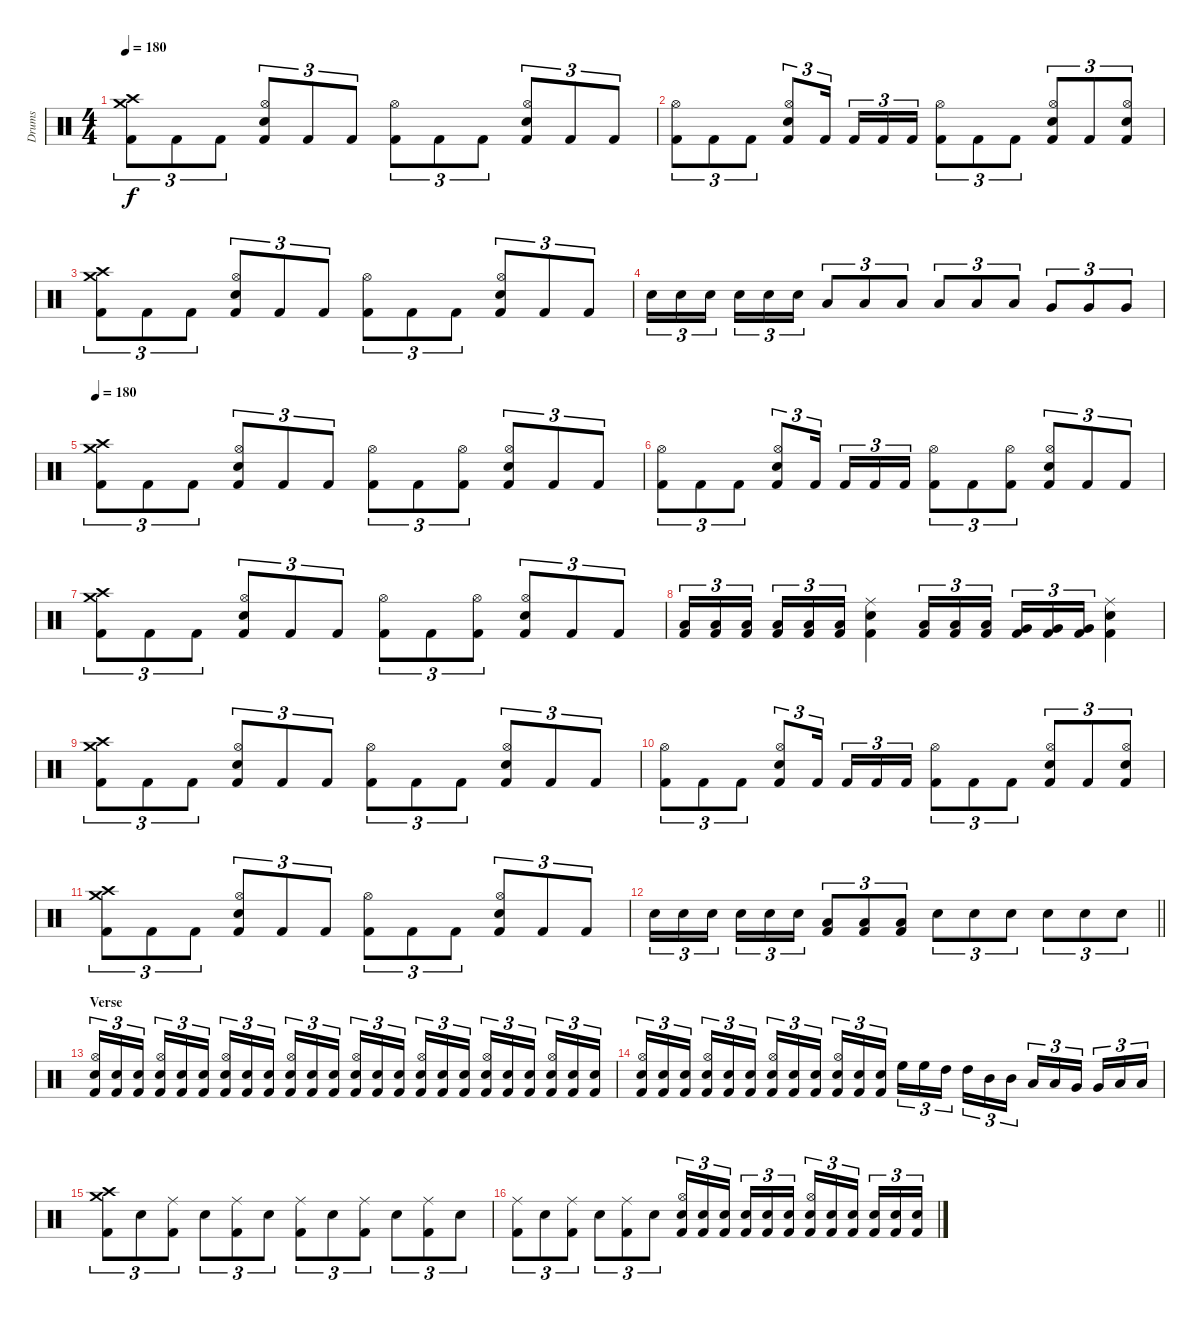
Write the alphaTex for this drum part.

\track ("Drums" "Drums") {instrument percussion}
\staff {score}
\articulation defaults
\ts (4 4)
\tempo 180
\clef neutral
\ks c
("Crash medium (hit)" "Crash high (hit)" "Kick (hit) 2").8{tu (3 2) dy f} "Kick (hit) 2".8{tu (3 2)} "Kick (hit) 2".8{tu (3 2)} ("Hi-Hat (open)" "Electric Snare (hit)" "Kick (hit) 2").8{tu (3 2)} "Kick (hit) 2".8{tu (3 2)} "Kick (hit) 2".8{tu (3 2)} ("Hi-Hat (open)" "Kick (hit) 2").8{tu (3 2)} "Kick (hit) 2".8{tu (3 2)} "Kick (hit) 2".8{tu (3 2)} ("Hi-Hat (open)" "Electric Snare (hit)" "Kick (hit) 2").8{tu (3 2)} "Kick (hit) 2".8{tu (3 2)} "Kick (hit) 2".8{tu (3 2)} |
("Hi-Hat (open)" "Kick (hit) 2").8{tu (3 2)} "Kick (hit) 2".8{tu (3 2)} "Kick (hit) 2".8{tu (3 2)} ("Hi-Hat (open)" "Electric Snare (hit)" "Kick (hit) 2").8{tu (3 2)} "Kick (hit) 2".16{tu (3 2) beam splitsecondary} "Kick (hit) 2".16{tu (3 2)} "Kick (hit) 2".16{tu (3 2)} "Kick (hit) 2".16{tu (3 2)} ("Hi-Hat (open)" "Kick (hit) 2").8{tu (3 2)} "Kick (hit) 2".8{tu (3 2)} "Kick (hit) 2".8{tu (3 2)} ("Hi-Hat (open)" "Electric Snare (hit)" "Kick (hit) 2").8{tu (3 2)} "Kick (hit) 2".8{tu (3 2)} ("Hi-Hat (open)" "Electric Snare (hit)" "Kick (hit) 2").8{tu (3 2)} |
("Crash medium (hit)" "Crash high (hit)" "Kick (hit) 2").8{tu (3 2)} "Kick (hit) 2".8{tu (3 2)} "Kick (hit) 2".8{tu (3 2)} ("Hi-Hat (open)" "Electric Snare (hit)" "Kick (hit) 2").8{tu (3 2)} "Kick (hit) 2".8{tu (3 2)} "Kick (hit) 2".8{tu (3 2)} ("Hi-Hat (open)" "Kick (hit) 2").8{tu (3 2)} "Kick (hit) 2".8{tu (3 2)} "Kick (hit) 2".8{tu (3 2)} ("Hi-Hat (open)" "Electric Snare (hit)" "Kick (hit) 2").8{tu (3 2)} "Kick (hit) 2".8{tu (3 2)} "Kick (hit) 2".8{tu (3 2)} |
"Electric Snare (hit)".16{tu (3 2)} "Electric Snare (hit)".16{tu (3 2)} "Electric Snare (hit)".16{tu (3 2) beam splitsecondary} "Electric Snare (hit)".16{tu (3 2)} "Electric Snare (hit)".16{tu (3 2)} "Electric Snare (hit)".16{tu (3 2)} "Low Floor Tom (hit)".8{tu (3 2)} "Low Floor Tom (hit)".8{tu (3 2)} "Low Floor Tom (hit)".8{tu (3 2)} "Low Tom (hit)".8{tu (3 2)} "Low Tom (hit)".8{tu (3 2)} "Low Tom (hit)".8{tu (3 2)} "Very Low Tom (hit)".8{tu (3 2)} "Very Low Tom (hit)".8{tu (3 2)} "Very Low Tom (hit)".8{tu (3 2)} |
\tempo 180
("Crash medium (hit)" "Crash high (hit)" "Kick (hit) 2").8{tu (3 2)} "Kick (hit) 2".8{tu (3 2)} "Kick (hit) 2".8{tu (3 2)} ("Hi-Hat (open)" "Electric Snare (hit)" "Kick (hit) 2").8{tu (3 2)} "Kick (hit) 2".8{tu (3 2)} "Kick (hit) 2".8{tu (3 2)} ("Hi-Hat (open)" "Kick (hit) 2").8{tu (3 2)} "Kick (hit) 2".8{tu (3 2)} ("Hi-Hat (open)" "Kick (hit) 2").8{tu (3 2)} ("Hi-Hat (open)" "Electric Snare (hit)" "Kick (hit) 2").8{tu (3 2)} "Kick (hit) 2".8{tu (3 2)} "Kick (hit) 2".8{tu (3 2)} |
("Hi-Hat (open)" "Kick (hit) 2").8{tu (3 2)} "Kick (hit) 2".8{tu (3 2)} "Kick (hit) 2".8{tu (3 2)} ("Hi-Hat (open)" "Electric Snare (hit)" "Kick (hit) 2").8{tu (3 2)} "Kick (hit) 2".16{tu (3 2) beam splitsecondary} "Kick (hit) 2".16{tu (3 2)} "Kick (hit) 2".16{tu (3 2)} "Kick (hit) 2".16{tu (3 2)} ("Hi-Hat (open)" "Kick (hit) 2").8{tu (3 2)} "Kick (hit) 2".8{tu (3 2)} ("Hi-Hat (open)" "Kick (hit) 2").8{tu (3 2)} ("Hi-Hat (open)" "Electric Snare (hit)" "Kick (hit) 2").8{tu (3 2)} "Kick (hit) 2".8{tu (3 2)} "Kick (hit) 2".8{tu (3 2)} |
("Crash medium (hit)" "Crash high (hit)" "Kick (hit) 2").8{tu (3 2)} "Kick (hit) 2".8{tu (3 2)} "Kick (hit) 2".8{tu (3 2)} ("Hi-Hat (open)" "Electric Snare (hit)" "Kick (hit) 2").8{tu (3 2)} "Kick (hit) 2".8{tu (3 2)} "Kick (hit) 2".8{tu (3 2)} ("Hi-Hat (open)" "Kick (hit) 2").8{tu (3 2)} "Kick (hit) 2".8{tu (3 2)} ("Hi-Hat (open)" "Kick (hit) 2").8{tu (3 2)} ("Hi-Hat (open)" "Electric Snare (hit)" "Kick (hit) 2").8{tu (3 2)} "Kick (hit) 2".8{tu (3 2)} "Kick (hit) 2".8{tu (3 2)} |
("Low Floor Tom (hit)" "Kick (hit) 2").16{tu (3 2)} ("Low Floor Tom (hit)" "Kick (hit) 2").16{tu (3 2)} ("Low Floor Tom (hit)" "Kick (hit) 2").16{tu (3 2) beam splitsecondary} ("Low Floor Tom (hit)" "Kick (hit) 2").16{tu (3 2)} ("Low Floor Tom (hit)" "Kick (hit) 2").16{tu (3 2)} ("Low Floor Tom (hit)" "Kick (hit) 2").16{tu (3 2)} ("Ride (middle)" "Electric Snare (hit)" "Kick (hit) 2").4 ("Low Tom (hit)" "Kick (hit) 2").16{tu (3 2)} ("Low Tom (hit)" "Kick (hit) 2").16{tu (3 2)} ("Low Tom (hit)" "Kick (hit) 2").16{tu (3 2) beam splitsecondary} ("Very Low Tom (hit)" "Kick (hit) 2").16{tu (3 2)} ("Very Low Tom (hit)" "Kick (hit) 2").16{tu (3 2)} ("Very Low Tom (hit)" "Kick (hit) 2").16{tu (3 2)} ("Ride (middle)" "Electric Snare (hit)" "Kick (hit) 2").4 |
("Crash medium (hit)" "Crash high (hit)" "Kick (hit) 2").8{tu (3 2)} "Kick (hit) 2".8{tu (3 2)} "Kick (hit) 2".8{tu (3 2)} ("Hi-Hat (open)" "Electric Snare (hit)" "Kick (hit) 2").8{tu (3 2)} "Kick (hit) 2".8{tu (3 2)} "Kick (hit) 2".8{tu (3 2)} ("Hi-Hat (open)" "Kick (hit) 2").8{tu (3 2)} "Kick (hit) 2".8{tu (3 2)} "Kick (hit) 2".8{tu (3 2)} ("Hi-Hat (open)" "Electric Snare (hit)" "Kick (hit) 2").8{tu (3 2)} "Kick (hit) 2".8{tu (3 2)} "Kick (hit) 2".8{tu (3 2)} |
("Hi-Hat (open)" "Kick (hit) 2").8{tu (3 2)} "Kick (hit) 2".8{tu (3 2)} "Kick (hit) 2".8{tu (3 2)} ("Hi-Hat (open)" "Electric Snare (hit)" "Kick (hit) 2").8{tu (3 2)} "Kick (hit) 2".16{tu (3 2) beam splitsecondary} "Kick (hit) 2".16{tu (3 2)} "Kick (hit) 2".16{tu (3 2)} "Kick (hit) 2".16{tu (3 2)} ("Hi-Hat (open)" "Kick (hit) 2").8{tu (3 2)} "Kick (hit) 2".8{tu (3 2)} "Kick (hit) 2".8{tu (3 2)} ("Hi-Hat (open)" "Electric Snare (hit)" "Kick (hit) 2").8{tu (3 2)} "Kick (hit) 2".8{tu (3 2)} ("Hi-Hat (open)" "Electric Snare (hit)" "Kick (hit) 2").8{tu (3 2)} |
("Crash medium (hit)" "Crash high (hit)" "Kick (hit) 2").8{tu (3 2)} "Kick (hit) 2".8{tu (3 2)} "Kick (hit) 2".8{tu (3 2)} ("Hi-Hat (open)" "Electric Snare (hit)" "Kick (hit) 2").8{tu (3 2)} "Kick (hit) 2".8{tu (3 2)} "Kick (hit) 2".8{tu (3 2)} ("Hi-Hat (open)" "Kick (hit) 2").8{tu (3 2)} "Kick (hit) 2".8{tu (3 2)} "Kick (hit) 2".8{tu (3 2)} ("Hi-Hat (open)" "Electric Snare (hit)" "Kick (hit) 2").8{tu (3 2)} "Kick (hit) 2".8{tu (3 2)} "Kick (hit) 2".8{tu (3 2)} |
\barLineRight lightlight "Electric Snare (hit)".16{tu (3 2)} "Electric Snare (hit)".16{tu (3 2)} "Electric Snare (hit)".16{tu (3 2) beam splitsecondary} "Electric Snare (hit)".16{tu (3 2)} "Electric Snare (hit)".16{tu (3 2)} "Electric Snare (hit)".16{tu (3 2)}
("Low Floor Tom (hit)" "Kick (hit) 2").8{tu (3 2)} ("Low Floor Tom (hit)" "Kick (hit) 2").8{tu (3 2)} ("Low Floor Tom (hit)" "Kick (hit) 2").8{tu (3 2)} "Electric Snare (hit)".8{tu (3 2)} "Electric Snare (hit)".8{tu (3 2)} "Electric Snare (hit)".8{tu (3 2)} "Electric Snare (hit)".8{tu (3 2)} "Electric Snare (hit)".8{tu (3 2)} "Electric Snare (hit)".8{tu (3 2)} |
\section ("" "Verse ")
("Hi-Hat (open)" "Electric Snare (hit)" "Kick (hit) 2").16{tu (3 2)} ("Electric Snare (hit)" "Kick (hit) 2").16{tu (3 2)} ("Electric Snare (hit)" "Kick (hit) 2").16{tu (3 2) beam splitsecondary} ("Hi-Hat (open)" "Electric Snare (hit)" "Kick (hit) 2").16{tu (3 2)} ("Electric Snare (hit)" "Kick (hit) 2").16{tu (3 2)} ("Electric Snare (hit)" "Kick (hit) 2").16{tu (3 2)} ("Hi-Hat (open)" "Electric Snare (hit)" "Kick (hit) 2").16{tu (3 2)} ("Electric Snare (hit)" "Kick (hit) 2").16{tu (3 2)} ("Electric Snare (hit)" "Kick (hit) 2").16{tu (3 2) beam splitsecondary} ("Hi-Hat (open)" "Electric Snare (hit)" "Kick (hit) 2").16{tu (3 2)} ("Electric Snare (hit)" "Kick (hit) 2").16{tu (3 2)} ("Electric Snare (hit)" "Kick (hit) 2").16{tu (3 2)} ("Hi-Hat (open)" "Electric Snare (hit)" "Kick (hit) 2").16{tu (3 2)} ("Electric Snare (hit)" "Kick (hit) 2").16{tu (3 2)} ("Electric Snare (hit)" "Kick (hit) 2").16{tu (3 2) beam splitsecondary} ("Hi-Hat (open)" "Electric Snare (hit)" "Kick (hit) 2").16{tu (3 2)} ("Electric Snare (hit)" "Kick (hit) 2").16{tu (3 2)} ("Electric Snare (hit)" "Kick (hit) 2").16{tu (3 2)} ("Hi-Hat (open)" "Electric Snare (hit)" "Kick (hit) 2").16{tu (3 2)} ("Electric Snare (hit)" "Kick (hit) 2").16{tu (3 2)} ("Electric Snare (hit)" "Kick (hit) 2").16{tu (3 2) beam splitsecondary} ("Hi-Hat (open)" "Electric Snare (hit)" "Kick (hit) 2").16{tu (3 2)} ("Electric Snare (hit)" "Kick (hit) 2").16{tu (3 2)} ("Electric Snare (hit)" "Kick (hit) 2").16{tu (3 2)} |
("Hi-Hat (open)" "Electric Snare (hit)" "Kick (hit) 2").16{tu (3 2)} ("Electric Snare (hit)" "Kick (hit) 2").16{tu (3 2)} ("Electric Snare (hit)" "Kick (hit) 2").16{tu (3 2) beam splitsecondary} ("Hi-Hat (open)" "Electric Snare (hit)" "Kick (hit) 2").16{tu (3 2)} ("Electric Snare (hit)" "Kick (hit) 2").16{tu (3 2)} ("Electric Snare (hit)" "Kick (hit) 2").16{tu (3 2)} ("Hi-Hat (open)" "Electric Snare (hit)" "Kick (hit) 2").16{tu (3 2)} ("Electric Snare (hit)" "Kick (hit) 2").16{tu (3 2)} ("Electric Snare (hit)" "Kick (hit) 2").16{tu (3 2) beam splitsecondary} ("Hi-Hat (open)" "Electric Snare (hit)" "Kick (hit) 2").16{tu (3 2)} ("Electric Snare (hit)" "Kick (hit) 2").16{tu (3 2)} ("Electric Snare (hit)" "Kick (hit) 2").16{tu (3 2)} "High Floor Tom (hit)".16{tu (3 2)} "High Floor Tom (hit)".16{tu (3 2)} "High Tom (hit)".16{tu (3 2) beam splitsecondary} "High Tom (hit)".16{tu (3 2)} "Mid Tom (hit)".16{tu (3 2)} "Mid Tom (hit)".16{tu (3 2)} "Low Tom (hit)".16{tu (3 2)} "Low Tom (hit)".16{tu (3 2)} "Very Low Tom (hit)".16{tu (3 2) beam splitsecondary} "Very Low Tom (hit)".16{tu (3 2)} "Low Floor Tom (hit)".16{tu (3 2)} "Low Floor Tom (hit)".16{tu (3 2)} |
("Crash medium (hit)" "Crash high (hit)" "Kick (hit) 2").8{tu (3 2)} "Electric Snare (hit)".8{tu (3 2)} ("Ride (middle)" "Kick (hit) 2").8{tu (3 2)} "Electric Snare (hit)".8{tu (3 2)} ("Ride (middle)" "Kick (hit) 2").8{tu (3 2)} "Electric Snare (hit)".8{tu (3 2)} ("Ride (middle)" "Kick (hit) 2").8{tu (3 2)} "Electric Snare (hit)".8{tu (3 2)} ("Ride (middle)" "Kick (hit) 2").8{tu (3 2)} "Electric Snare (hit)".8{tu (3 2)} ("Ride (middle)" "Kick (hit) 2").8{tu (3 2)} "Electric Snare (hit)".8{tu (3 2)} |
("Ride (middle)" "Kick (hit) 2").8{tu (3 2)} "Electric Snare (hit)".8{tu (3 2)} ("Ride (middle)" "Kick (hit) 2").8{tu (3 2)} "Electric Snare (hit)".8{tu (3 2)} ("Ride (middle)" "Kick (hit) 2").8{tu (3 2)} "Electric Snare (hit)".8{tu (3 2)} ("Hi-Hat (open)" "Electric Snare (hit)" "Kick (hit) 2").16{tu (3 2)} ("Electric Snare (hit)" "Kick (hit) 2").16{tu (3 2)} ("Electric Snare (hit)" "Kick (hit) 2").16{tu (3 2) beam splitsecondary} ("Electric Snare (hit)" "Kick (hit) 2").16{tu (3 2)} ("Electric Snare (hit)" "Kick (hit) 2").16{tu (3 2)} ("Electric Snare (hit)" "Kick (hit) 2").16{tu (3 2)} ("Hi-Hat (open)" "Electric Snare (hit)" "Kick (hit) 2").16{tu (3 2)} ("Electric Snare (hit)" "Kick (hit) 2").16{tu (3 2)} ("Electric Snare (hit)" "Kick (hit) 2").16{tu (3 2) beam splitsecondary} ("Electric Snare (hit)" "Kick (hit) 2").16{tu (3 2)} ("Electric Snare (hit)" "Kick (hit) 2").16{tu (3 2)} ("Electric Snare (hit)" "Kick (hit) 2").16{tu (3 2)}
